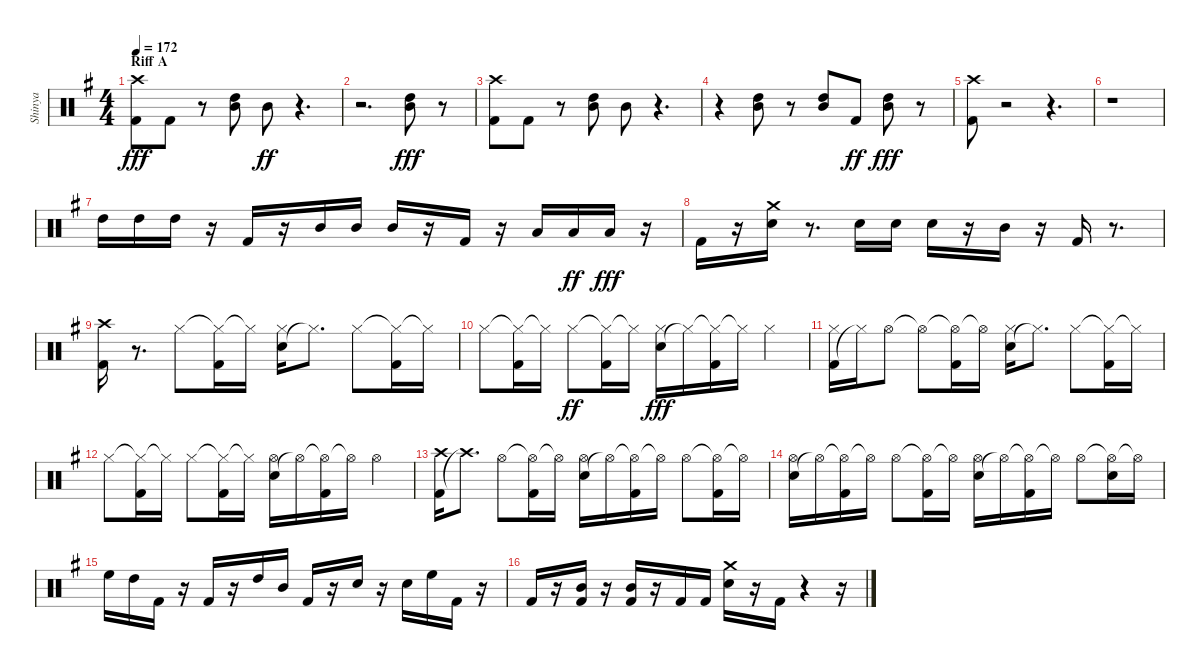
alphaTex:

\track ("Shinya" "Shinya") {instrument percussion}
\staff {score}
\articulation defaults
\ts (4 4)
\section ("" "Riff A")
\tempo 172
\clef neutral
\ks eminor
("Kick (hit) 2" "Crash high (hit)").8{dy fff} "Kick (hit) 2".8 r.8 ("Mid Tom (hit)" "High Tom (hit)").8 "Mid Tom (hit)".8{dy ff} r.4{d} |
r.2{d} ("Mid Tom (hit)" "High Tom (hit)").8{dy fff} r.8 |
("Kick (hit) 2" "Crash high (hit)").8 "Kick (hit) 2".8 r.8 ("Mid Tom (hit)" "High Tom (hit)").8 "Mid Tom (hit)".8 r.4{d} |
r.4 ("Mid Tom (hit)" "High Tom (hit)").8 r.8 ("Mid Tom (hit)" "High Tom (hit)").8 "Kick (hit) 2".8{dy ff} ("Mid Tom (hit)" "High Tom (hit)").8{dy fff} r.8 |
("Kick (hit) 2" "Crash high (hit)").8 r.2 r.4{d} |
r.1 |
"High Tom (hit)".16 "High Tom (hit)".16 "High Tom (hit)".16 r.16 "Kick (hit) 2".16 r.16 "Mid Tom (hit)".16 "Mid Tom (hit)".16 "Mid Tom (hit)".16 r.16 "Kick (hit) 2".16 r.16 "Low Tom (hit)".16 "Low Tom (hit)".16{dy ff} "Low Tom (hit)".16{dy fff} r.16 |
"Kick (hit) 2".16 r.16 ("Snare (hit) 2" "Crash medium (hit)").16 r.8{d} "Snare (hit) 2".16 "Snare (hit) 2".16 "Snare (hit) 2".16 r.16 "Mid Tom (hit)".16 r.16 "Kick (hit) 2".16 r.8{d} |
("Kick (hit) 2" "Crash high (hit)").16 r.8{d} "Hi-Hat (closed)".8 ("Hi-Hat (closed)"{t} "Kick (hit) 2").16 "Hi-Hat (closed)"{t}.16 ("Snare (hit) 2" "Hi-Hat (closed)").16 "Hi-Hat (closed)"{t}.8{d} "Hi-Hat (closed)".8 ("Hi-Hat (closed)"{t} "Kick (hit) 2").16 "Hi-Hat (closed)"{t}.16 |
"Hi-Hat (closed)".8 ("Hi-Hat (closed)"{t} "Kick (hit) 2").16 "Hi-Hat (closed)"{t}.16 "Hi-Hat (closed)".8{dy ff} ("Hi-Hat (closed)"{t} "Kick (hit) 2").16 "Hi-Hat (closed)"{t}.16 ("Snare (hit) 2" "Hi-Hat (closed)").16{dy fff} "Hi-Hat (closed)"{t}.16 ("Hi-Hat (closed)"{t} "Kick (hit) 2").16 "Hi-Hat (closed)"{t}.16 "Hi-Hat (closed)".4 |
("Kick (hit) 2" "Hi-Hat (closed)").16 "Hi-Hat (closed)"{t}.16 "Hi-Hat (open)".8 "Hi-Hat (open)"{t}.8 ("Hi-Hat (open)"{t} "Kick (hit) 2").16 "Hi-Hat (open)"{t}.16 ("Snare (hit) 2" "Hi-Hat (closed)").16 "Hi-Hat (closed)"{t}.8{d} "Hi-Hat (closed)".8 ("Hi-Hat (closed)"{t} "Kick (hit) 2").16 "Hi-Hat (closed)"{t}.16 |
"Hi-Hat (closed)".8 ("Hi-Hat (closed)"{t} "Kick (hit) 2").16 "Hi-Hat (closed)"{t}.16 "Hi-Hat (closed)".8 ("Hi-Hat (closed)"{t} "Kick (hit) 2").16 "Hi-Hat (closed)"{t}.16 ("Snare (hit) 2" "Hi-Hat (open)").16 "Hi-Hat (open)"{t}.16 ("Hi-Hat (open)"{t} "Kick (hit) 2").16 "Hi-Hat (open)"{t}.16 "Hi-Hat (open)".4 |
("Kick (hit) 2" "Crash high (hit)").16 "Crash high (hit)"{t}.8{d} "Hi-Hat (open)".8 ("Hi-Hat (open)"{t} "Kick (hit) 2").16 "Hi-Hat (open)"{t}.16 ("Snare (hit) 2" "Hi-Hat (open)").16 "Hi-Hat (open)"{t}.16 ("Hi-Hat (open)"{t} "Kick (hit) 2").16 "Hi-Hat (open)"{t}.16 "Hi-Hat (open)".8 ("Hi-Hat (open)"{t} "Kick (hit) 2").16 "Hi-Hat (open)"{t}.16 |
("Snare (hit) 2" "Hi-Hat (open)").16 "Hi-Hat (open)"{t}.16 ("Hi-Hat (open)"{t} "Kick (hit) 2").16 "Hi-Hat (open)"{t}.16 "Hi-Hat (open)".8 ("Hi-Hat (open)"{t} "Kick (hit) 2").16 "Hi-Hat (open)"{t}.16 ("Snare (hit) 2" "Hi-Hat (open)").16 "Hi-Hat (open)"{t}.16 ("Hi-Hat (open)"{t} "Kick (hit) 2").16 "Hi-Hat (open)"{t}.16 "Hi-Hat (open)".8 ("Hi-Hat (open)"{t} "Snare (hit) 2").16 "Hi-Hat (open)"{t}.16 |
"High Floor Tom (hit)".16 "High Tom (hit)".16 "Kick (hit) 2".16 r.16 "Kick (hit) 2".16 r.16 "High Tom (hit)".16 "Mid Tom (hit)".16 "Kick (hit) 2".16 r.16 "Snare (hit) 2".16 r.16 "Snare (hit) 2".16 "High Floor Tom (hit)".16 "Kick (hit) 2".16 r.16 |
"Kick (hit) 2".16 r.16 ("Kick (hit) 2" "Mid Tom (hit)").16 r.16 ("Kick (hit) 2" "Mid Tom (hit)").16 r.16 "Kick (hit) 2".16 "Kick (hit) 2".16 ("Snare (hit) 2" "Crash medium (hit)").16 r.16 "Kick (hit) 2".16 r.4 r.16
